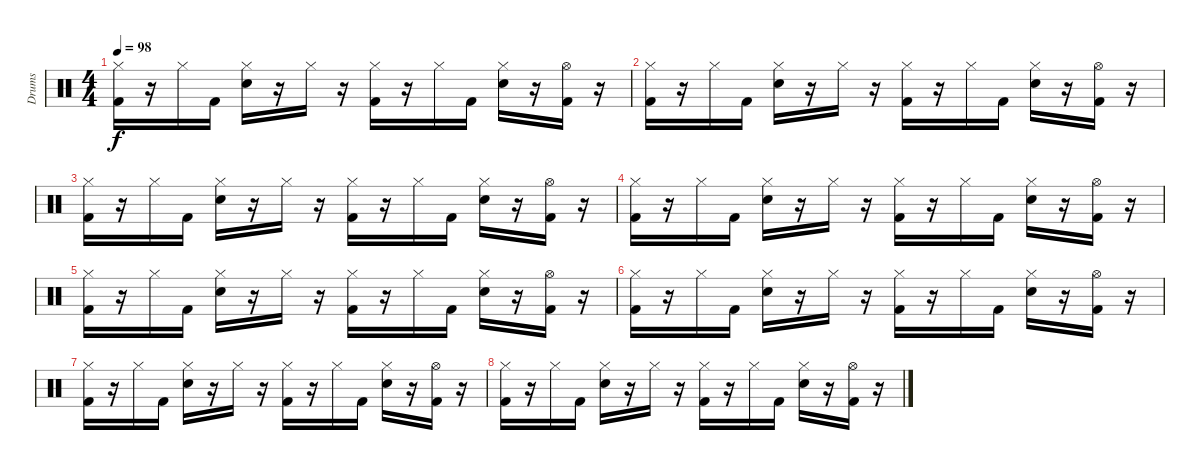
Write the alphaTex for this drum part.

\track ("Drums" "Drums") {instrument percussion}
\staff {score}
\articulation defaults
\ts (4 4)
\tempo 98
\clef neutral
\ks c
("Hi-Hat (closed)" "Kick (hit) 2").16{dy f} r.16 "Hi-Hat (closed)".16 "Kick (hit) 2".16 ("Hi-Hat (closed)" "Snare (hit) 2").16 r.16 "Hi-Hat (closed)".16 r.16 ("Hi-Hat (closed)" "Kick (hit) 2").16 r.16 "Hi-Hat (closed)".16 "Kick (hit) 2".16 ("Hi-Hat (closed)" "Snare (hit) 2").16 r.16 ("Hi-Hat (open)" "Kick (hit) 2").16 r.16 |
("Hi-Hat (closed)" "Kick (hit) 2").16 r.16 "Hi-Hat (closed)".16 "Kick (hit) 2".16 ("Hi-Hat (closed)" "Snare (hit) 2").16 r.16 "Hi-Hat (closed)".16 r.16 ("Hi-Hat (closed)" "Kick (hit) 2").16 r.16 "Hi-Hat (closed)".16 "Kick (hit) 2".16 ("Hi-Hat (closed)" "Snare (hit) 2").16 r.16 ("Hi-Hat (open)" "Kick (hit) 2").16 r.16 |
("Hi-Hat (closed)" "Kick (hit) 2").16 r.16 "Hi-Hat (closed)".16 "Kick (hit) 2".16 ("Hi-Hat (closed)" "Snare (hit) 2").16 r.16 "Hi-Hat (closed)".16 r.16 ("Hi-Hat (closed)" "Kick (hit) 2").16 r.16 "Hi-Hat (closed)".16 "Kick (hit) 2".16 ("Hi-Hat (closed)" "Snare (hit) 2").16 r.16 ("Hi-Hat (open)" "Kick (hit) 2").16 r.16 |
("Hi-Hat (closed)" "Kick (hit) 2").16 r.16 "Hi-Hat (closed)".16 "Kick (hit) 2".16 ("Hi-Hat (closed)" "Snare (hit) 2").16 r.16 "Hi-Hat (closed)".16 r.16 ("Hi-Hat (closed)" "Kick (hit) 2").16 r.16 "Hi-Hat (closed)".16 "Kick (hit) 2".16 ("Hi-Hat (closed)" "Snare (hit) 2").16 r.16 ("Hi-Hat (open)" "Kick (hit) 2").16 r.16 |
("Hi-Hat (closed)" "Kick (hit) 2").16 r.16 "Hi-Hat (closed)".16 "Kick (hit) 2".16 ("Hi-Hat (closed)" "Snare (hit) 2").16 r.16 "Hi-Hat (closed)".16 r.16 ("Hi-Hat (closed)" "Kick (hit) 2").16 r.16 "Hi-Hat (closed)".16 "Kick (hit) 2".16 ("Hi-Hat (closed)" "Snare (hit) 2").16 r.16 ("Hi-Hat (open)" "Kick (hit) 2").16 r.16 |
("Hi-Hat (closed)" "Kick (hit) 2").16 r.16 "Hi-Hat (closed)".16 "Kick (hit) 2".16 ("Hi-Hat (closed)" "Snare (hit) 2").16 r.16 "Hi-Hat (closed)".16 r.16 ("Hi-Hat (closed)" "Kick (hit) 2").16 r.16 "Hi-Hat (closed)".16 "Kick (hit) 2".16 ("Hi-Hat (closed)" "Snare (hit) 2").16 r.16 ("Hi-Hat (open)" "Kick (hit) 2").16 r.16 |
("Hi-Hat (closed)" "Kick (hit) 2").16 r.16 "Hi-Hat (closed)".16 "Kick (hit) 2".16 ("Hi-Hat (closed)" "Snare (hit) 2").16 r.16 "Hi-Hat (closed)".16 r.16 ("Hi-Hat (closed)" "Kick (hit) 2").16 r.16 "Hi-Hat (closed)".16 "Kick (hit) 2".16 ("Hi-Hat (closed)" "Snare (hit) 2").16 r.16 ("Hi-Hat (open)" "Kick (hit) 2").16 r.16 |
("Hi-Hat (closed)" "Kick (hit) 2").16 r.16 "Hi-Hat (closed)".16 "Kick (hit) 2".16 ("Hi-Hat (closed)" "Snare (hit) 2").16 r.16 "Hi-Hat (closed)".16 r.16 ("Hi-Hat (closed)" "Kick (hit) 2").16 r.16 "Hi-Hat (closed)".16 "Kick (hit) 2".16 ("Hi-Hat (closed)" "Snare (hit) 2").16 r.16 ("Hi-Hat (open)" "Kick (hit) 2").16 r.16
